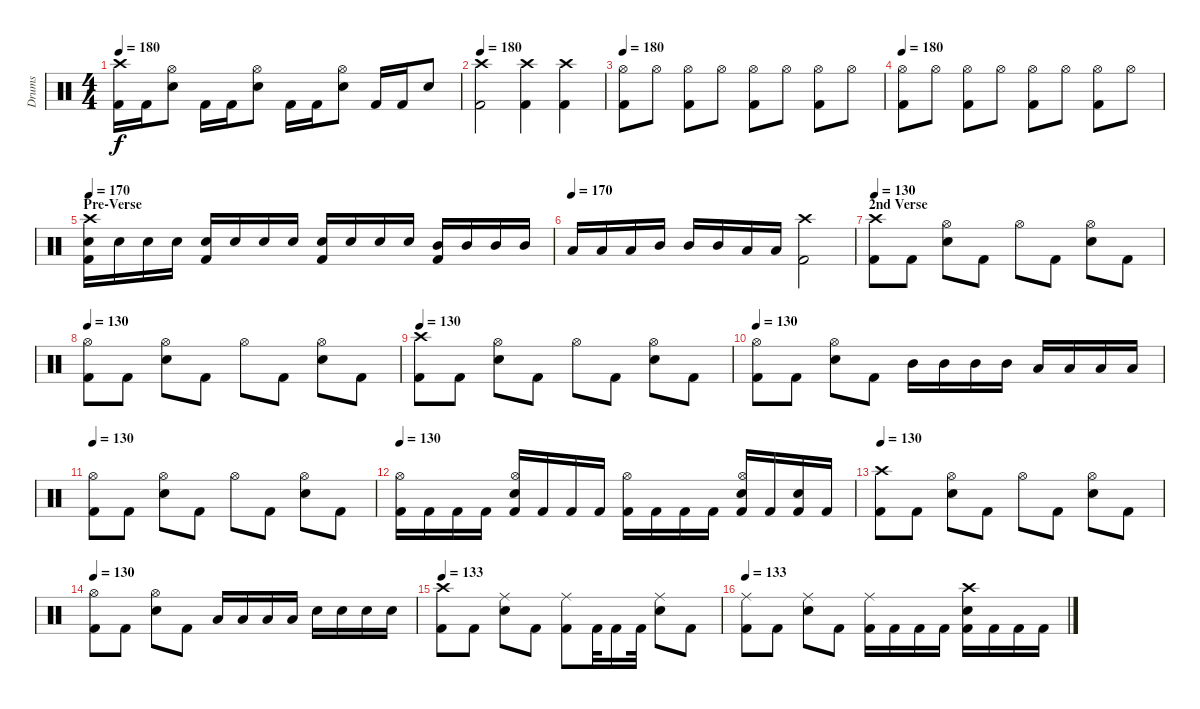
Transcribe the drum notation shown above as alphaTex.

\track ("Drums" "Drums") {instrument percussion}
\staff {score}
\articulation defaults
\ts (4 4)
\tempo 180
\clef neutral
\ks c
("Crash high (hit)" "Kick (hit) 2").16{dy f} "Kick (hit) 2".16 ("Hi-Hat (open)" "Snare (hit) 2").8 "Kick (hit) 2".16 "Kick (hit) 2".16 ("Hi-Hat (open)" "Snare (hit) 2").8 "Kick (hit) 2".16 "Kick (hit) 2".16 ("Hi-Hat (open)" "Snare (hit) 2").8 "Kick (hit) 2".16 "Kick (hit) 2".16 "Snare (hit) 2".8 |
\tempo 180
("Crash high (hit)" "Kick (hit) 2").2 ("Crash high (hit)" "Kick (hit) 2").4 ("Crash high (hit)" "Kick (hit) 2").4 |
\tempo 180
("Hi-Hat (open)" "Kick (hit) 2").8 "Hi-Hat (open)".8 ("Hi-Hat (open)" "Kick (hit) 2").8 "Hi-Hat (open)".8 ("Hi-Hat (open)" "Kick (hit) 2").8 "Hi-Hat (open)".8 ("Hi-Hat (open)" "Kick (hit) 2").8 "Hi-Hat (open)".8 |
\tempo 180
("Hi-Hat (open)" "Kick (hit) 2").8 "Hi-Hat (open)".8 ("Hi-Hat (open)" "Kick (hit) 2").8 "Hi-Hat (open)".8 ("Hi-Hat (open)" "Kick (hit) 2").8 "Hi-Hat (open)".8 ("Hi-Hat (open)" "Kick (hit) 2").8 "Hi-Hat (open)".8 |
\section ("" "Pre-Verse")
\tempo 170
("Crash high (hit)" "Snare (hit) 2" "Kick (hit) 2").16 "Snare (hit) 2".16 "Snare (hit) 2".16 "Snare (hit) 2".16 ("Snare (hit) 2" "Kick (hit) 2").16 "Snare (hit) 2".16 "Snare (hit) 2".16 "Snare (hit) 2".16 ("Snare (hit) 2" "Kick (hit) 2").16 "Snare (hit) 2".16 "Snare (hit) 2".16 "Snare (hit) 2".16 ("Mid Tom (hit)" "Kick (hit) 2").16 "Mid Tom (hit)".16 "Mid Tom (hit)".16 "Mid Tom (hit)".16 |
\tempo (170)
"Low Tom (hit)".16 "Low Tom (hit)".16 "Low Tom (hit)".16 "Mid Tom (hit)".16 "Mid Tom (hit)".16 "Mid Tom (hit)".16 "Low Floor Tom (hit)".16 "Low Floor Tom (hit)".16 ("Crash high (hit)" "Kick (hit) 2").2 |
\section ("" "2nd Verse")
\tempo 130
("Crash high (hit)" "Kick (hit) 2").8 "Kick (hit) 2".8 ("Hi-Hat (open)" "Snare (hit) 2").8 "Kick (hit) 2".8 "Hi-Hat (open)".8 "Kick (hit) 2".8 ("Hi-Hat (open)" "Snare (hit) 2").8 "Kick (hit) 2".8 |
\tempo 130
("Hi-Hat (open)" "Kick (hit) 2").8 "Kick (hit) 2".8 ("Hi-Hat (open)" "Snare (hit) 2").8 "Kick (hit) 2".8 "Hi-Hat (open)".8 "Kick (hit) 2".8 ("Hi-Hat (open)" "Snare (hit) 2").8 "Kick (hit) 2".8 |
\tempo 130
("Crash high (hit)" "Kick (hit) 2").8 "Kick (hit) 2".8 ("Hi-Hat (open)" "Snare (hit) 2").8 "Kick (hit) 2".8 "Hi-Hat (open)".8 "Kick (hit) 2".8 ("Hi-Hat (open)" "Snare (hit) 2").8 "Kick (hit) 2".8 |
\tempo 130
("Hi-Hat (open)" "Kick (hit) 2").8 "Kick (hit) 2".8 ("Hi-Hat (open)" "Snare (hit) 2").8 "Kick (hit) 2".8 "Mid Tom (hit)".16 "Mid Tom (hit)".16 "Mid Tom (hit)".16 "Mid Tom (hit)".16 "Low Tom (hit)".16 "Low Tom (hit)".16 "Low Tom (hit)".16 "Low Tom (hit)".16 |
\tempo 130
("Hi-Hat (open)" "Kick (hit) 2").8 "Kick (hit) 2".8 ("Hi-Hat (open)" "Snare (hit) 2").8 "Kick (hit) 2".8 "Hi-Hat (open)".8 "Kick (hit) 2".8 ("Hi-Hat (open)" "Snare (hit) 2").8 "Kick (hit) 2".8 |
\tempo 130
("Hi-Hat (open)" "Kick (hit) 2").16 "Kick (hit) 2".16 "Kick (hit) 2".16 "Kick (hit) 2".16 ("Hi-Hat (open)" "Snare (hit) 2" "Kick (hit) 2").16 "Kick (hit) 2".16 "Kick (hit) 2".16 "Kick (hit) 2".16 ("Hi-Hat (open)" "Kick (hit) 2").16 "Kick (hit) 2".16 "Kick (hit) 2".16 "Kick (hit) 2".16 ("Hi-Hat (open)" "Snare (hit) 2" "Kick (hit) 2").16 "Kick (hit) 2".16 ("Snare (hit) 2" "Kick (hit) 2").16 "Kick (hit) 2".16 |
\tempo 130
("Crash high (hit)" "Kick (hit) 2").8 "Kick (hit) 2".8 ("Hi-Hat (open)" "Snare (hit) 2").8 "Kick (hit) 2".8 "Hi-Hat (open)".8 "Kick (hit) 2".8 ("Hi-Hat (open)" "Snare (hit) 2").8 "Kick (hit) 2".8 |
\tempo 130
("Hi-Hat (open)" "Kick (hit) 2").8 "Kick (hit) 2".8 ("Hi-Hat (open)" "Snare (hit) 2").8 "Kick (hit) 2".8 "Low Tom (hit)".16 "Low Tom (hit)".16 "Low Tom (hit)".16 "Low Tom (hit)".16 "Snare (hit) 2".16 "Snare (hit) 2".16 "Snare (hit) 2".16 "Snare (hit) 2".16 |
\tempo 133
("Crash high (hit)" "Kick (hit) 2").8 "Kick (hit) 2".8 ("Ride (middle)" "Snare (hit) 2").8 "Kick (hit) 2".8 ("Ride (middle)" "Kick (hit) 2").8 "Kick (hit) 2".32 "Kick (hit) 2".16 "Kick (hit) 2".32 ("Ride (middle)" "Snare (hit) 2").8 "Kick (hit) 2".8 |
\tempo 133
("Ride (middle)" "Kick (hit) 2").8 "Kick (hit) 2".8 ("Ride (middle)" "Snare (hit) 2").8 "Kick (hit) 2".8 ("Ride (middle)" "Kick (hit) 2").16 "Kick (hit) 2".16 "Kick (hit) 2".16 "Kick (hit) 2".16 ("Crash high (hit)" "Snare (hit) 2" "Kick (hit) 2").16 "Kick (hit) 2".16 "Kick (hit) 2".16 "Kick (hit) 2".16
